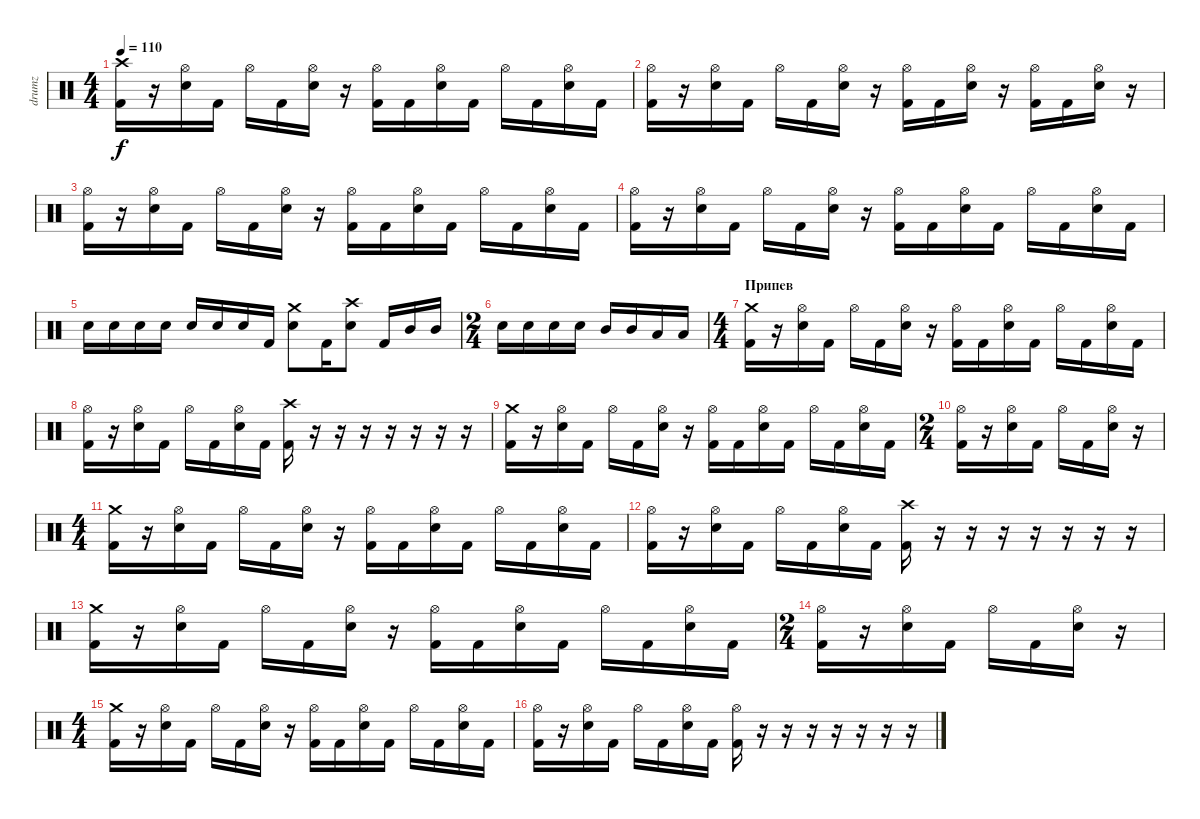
\track ("drumz" "drumz") {instrument percussion}
\staff {score}
\articulation defaults
\ts (4 4)
\tempo 110
\clef neutral
\ks c
("Crash high (hit)" "Kick (hit) 2").16{dy f} r.16 ("Hi-Hat (open)" "Electric Snare (hit)").16 "Kick (hit) 2".16 "Hi-Hat (open)".16 "Kick (hit) 2".16 ("Hi-Hat (open)" "Electric Snare (hit)").16 r.16 ("Hi-Hat (open)" "Kick (hit) 2").16 "Kick (hit) 2".16 ("Hi-Hat (open)" "Electric Snare (hit)").16 "Kick (hit) 2".16 "Hi-Hat (open)".16 "Kick (hit) 2".16 ("Hi-Hat (open)" "Electric Snare (hit)").16 "Kick (hit) 2".16 |
("Hi-Hat (open)" "Kick (hit) 2").16 r.16 ("Hi-Hat (open)" "Electric Snare (hit)").16 "Kick (hit) 2".16 "Hi-Hat (open)".16 "Kick (hit) 2".16 ("Hi-Hat (open)" "Electric Snare (hit)").16 r.16 ("Hi-Hat (open)" "Kick (hit) 2").16 "Kick (hit) 2".16 ("Hi-Hat (open)" "Electric Snare (hit)").16 r.16 ("Hi-Hat (open)" "Kick (hit) 2").16 "Kick (hit) 2".16 ("Hi-Hat (open)" "Electric Snare (hit)").16 r.16 |
("Hi-Hat (open)" "Kick (hit) 2").16 r.16 ("Hi-Hat (open)" "Electric Snare (hit)").16 "Kick (hit) 2".16 "Hi-Hat (open)".16 "Kick (hit) 2".16 ("Hi-Hat (open)" "Electric Snare (hit)").16 r.16 ("Hi-Hat (open)" "Kick (hit) 2").16 "Kick (hit) 2".16 ("Hi-Hat (open)" "Electric Snare (hit)").16 "Kick (hit) 2".16 "Hi-Hat (open)".16 "Kick (hit) 2".16 ("Hi-Hat (open)" "Electric Snare (hit)").16 "Kick (hit) 2".16 |
("Hi-Hat (open)" "Kick (hit) 2").16 r.16 ("Hi-Hat (open)" "Electric Snare (hit)").16 "Kick (hit) 2".16 "Hi-Hat (open)".16 "Kick (hit) 2".16 ("Hi-Hat (open)" "Electric Snare (hit)").16 r.16 ("Hi-Hat (open)" "Kick (hit) 2").16 "Kick (hit) 2".16 ("Hi-Hat (open)" "Electric Snare (hit)").16 "Kick (hit) 2".16 "Hi-Hat (open)".16 "Kick (hit) 2".16 ("Hi-Hat (open)" "Electric Snare (hit)").16 "Kick (hit) 2".16 |
"Electric Snare (hit)".16 "Electric Snare (hit)".16 "Electric Snare (hit)".16 "Electric Snare (hit)".16 "Electric Snare (hit)".16 "Electric Snare (hit)".16 "Electric Snare (hit)".16 "Kick (hit) 2".16 ("Crash medium (hit)" "Electric Snare (hit)").8 "Kick (hit) 2".16 ("Crash high (hit)" "Electric Snare (hit)").8 "Kick (hit) 2".16 "Mid Tom (hit)".16 "Mid Tom (hit)".16 |
\ts (2 4)
"Electric Snare (hit)".16 "Electric Snare (hit)".16 "Electric Snare (hit)".16 "Electric Snare (hit)".16 "Mid Tom (hit)".16 "Mid Tom (hit)".16 "Low Tom (hit)".16 "Low Tom (hit)".16 |
\ts (4 4)
\section ("" "Припев")
("Crash medium (hit)" "Kick (hit) 2").16 r.16 ("Hi-Hat (open)" "Electric Snare (hit)").16 "Kick (hit) 2".16 "Hi-Hat (open)".16 "Kick (hit) 2".16 ("Hi-Hat (open)" "Electric Snare (hit)").16 r.16 ("Hi-Hat (open)" "Kick (hit) 2").16 "Kick (hit) 2".16 ("Hi-Hat (open)" "Electric Snare (hit)").16 "Kick (hit) 2".16 "Hi-Hat (open)".16 "Kick (hit) 2".16 ("Hi-Hat (open)" "Electric Snare (hit)").16 "Kick (hit) 2".16 |
("Hi-Hat (open)" "Kick (hit) 2").16 r.16 ("Hi-Hat (open)" "Electric Snare (hit)").16 "Kick (hit) 2".16 "Hi-Hat (open)".16 "Kick (hit) 2".16 ("Hi-Hat (open)" "Electric Snare (hit)").16 "Kick (hit) 2".16 ("Crash high (hit)" "Kick (hit) 2").16 r.16 r.16 r.16 r.16 r.16 r.16 r.16 |
("Crash medium (hit)" "Kick (hit) 2").16 r.16 ("Hi-Hat (open)" "Electric Snare (hit)").16 "Kick (hit) 2".16 "Hi-Hat (open)".16 "Kick (hit) 2".16 ("Hi-Hat (open)" "Electric Snare (hit)").16 r.16 ("Hi-Hat (open)" "Kick (hit) 2").16 "Kick (hit) 2".16 ("Hi-Hat (open)" "Electric Snare (hit)").16 "Kick (hit) 2".16 "Hi-Hat (open)".16 "Kick (hit) 2".16 ("Hi-Hat (open)" "Electric Snare (hit)").16 "Kick (hit) 2".16 |
\ts (2 4)
("Hi-Hat (open)" "Kick (hit) 2").16 r.16 ("Hi-Hat (open)" "Electric Snare (hit)").16 "Kick (hit) 2".16 "Hi-Hat (open)".16 "Kick (hit) 2".16 ("Hi-Hat (open)" "Electric Snare (hit)").16 r.16 |
\ts (4 4)
("Crash medium (hit)" "Kick (hit) 2").16 r.16 ("Hi-Hat (open)" "Electric Snare (hit)").16 "Kick (hit) 2".16 "Hi-Hat (open)".16 "Kick (hit) 2".16 ("Hi-Hat (open)" "Electric Snare (hit)").16 r.16 ("Hi-Hat (open)" "Kick (hit) 2").16 "Kick (hit) 2".16 ("Hi-Hat (open)" "Electric Snare (hit)").16 "Kick (hit) 2".16 "Hi-Hat (open)".16 "Kick (hit) 2".16 ("Hi-Hat (open)" "Electric Snare (hit)").16 "Kick (hit) 2".16 |
("Hi-Hat (open)" "Kick (hit) 2").16 r.16 ("Hi-Hat (open)" "Electric Snare (hit)").16 "Kick (hit) 2".16 "Hi-Hat (open)".16 "Kick (hit) 2".16 ("Hi-Hat (open)" "Electric Snare (hit)").16 "Kick (hit) 2".16 ("Crash high (hit)" "Kick (hit) 2").16 r.16 r.16 r.16 r.16 r.16 r.16 r.16 |
("Crash medium (hit)" "Kick (hit) 2").16 r.16 ("Hi-Hat (open)" "Electric Snare (hit)").16 "Kick (hit) 2".16 "Hi-Hat (open)".16 "Kick (hit) 2".16 ("Hi-Hat (open)" "Electric Snare (hit)").16 r.16 ("Hi-Hat (open)" "Kick (hit) 2").16 "Kick (hit) 2".16 ("Hi-Hat (open)" "Electric Snare (hit)").16 "Kick (hit) 2".16 "Hi-Hat (open)".16 "Kick (hit) 2".16 ("Hi-Hat (open)" "Electric Snare (hit)").16 "Kick (hit) 2".16 |
\ts (2 4)
("Hi-Hat (open)" "Kick (hit) 2").16 r.16 ("Hi-Hat (open)" "Electric Snare (hit)").16 "Kick (hit) 2".16 "Hi-Hat (open)".16 "Kick (hit) 2".16 ("Hi-Hat (open)" "Electric Snare (hit)").16 r.16 |
\ts (4 4)
("Crash medium (hit)" "Kick (hit) 2").16 r.16 ("Hi-Hat (open)" "Electric Snare (hit)").16 "Kick (hit) 2".16 "Hi-Hat (open)".16 "Kick (hit) 2".16 ("Hi-Hat (open)" "Electric Snare (hit)").16 r.16 ("Hi-Hat (open)" "Kick (hit) 2").16 "Kick (hit) 2".16 ("Hi-Hat (open)" "Electric Snare (hit)").16 "Kick (hit) 2".16 "Hi-Hat (open)".16 "Kick (hit) 2".16 ("Hi-Hat (open)" "Electric Snare (hit)").16 "Kick (hit) 2".16 |
("Hi-Hat (open)" "Kick (hit) 2").16 r.16 ("Hi-Hat (open)" "Electric Snare (hit)").16 "Kick (hit) 2".16 "Hi-Hat (open)".16 "Kick (hit) 2".16 ("Hi-Hat (open)" "Electric Snare (hit)").16 "Kick (hit) 2".16 ("Hi-Hat (open)" "Kick (hit) 2").16 r.16 r.16 r.16 r.16 r.16 r.16 r.16
